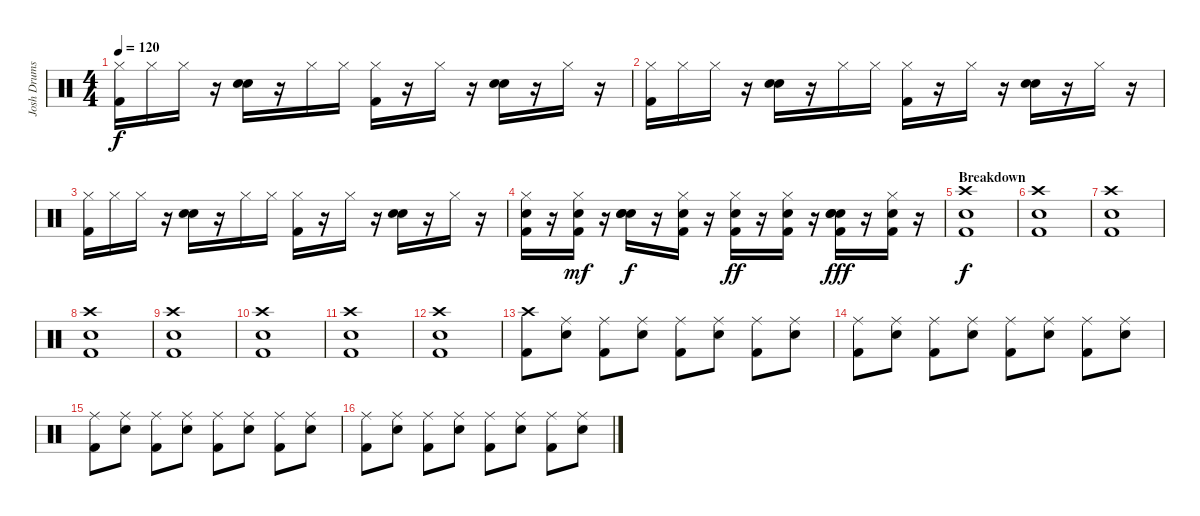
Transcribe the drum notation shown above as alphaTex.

\track ("Josh Drums" "Josh Drums") {instrument percussion}
\staff {score}
\articulation defaults
\ts (4 4)
\tempo 120
\clef neutral
\ks c
("Hi-Hat (closed)" "Kick (hit) 2").16{dy f} "Hi-Hat (closed)".16 "Hi-Hat (closed)".16 r.16 ("Hand Clap (hit)" "Hand Clap (hit)").16 r.16 "Hi-Hat (closed)".16 "Hi-Hat (closed)".16 ("Hi-Hat (closed)" "Kick (hit) 2").16 r.16 "Hi-Hat (closed)".16 r.16 ("Hand Clap (hit)" "Hand Clap (hit)").16 r.16 "Hi-Hat (closed)".16 r.16 |
("Hi-Hat (closed)" "Kick (hit) 2").16 "Hi-Hat (closed)".16 "Hi-Hat (closed)".16 r.16 ("Hand Clap (hit)" "Hand Clap (hit)").16 r.16 "Hi-Hat (closed)".16 "Hi-Hat (closed)".16 ("Hi-Hat (closed)" "Kick (hit) 2").16 r.16 "Hi-Hat (closed)".16 r.16 ("Hand Clap (hit)" "Hand Clap (hit)").16 r.16 "Hi-Hat (closed)".16 r.16 |
("Hi-Hat (closed)" "Kick (hit) 2").16 "Hi-Hat (closed)".16 "Hi-Hat (closed)".16 r.16 ("Hand Clap (hit)" "Hand Clap (hit)").16 r.16 "Hi-Hat (closed)".16 "Hi-Hat (closed)".16 ("Hi-Hat (closed)" "Kick (hit) 2").16 r.16 "Hi-Hat (closed)".16 r.16 ("Hand Clap (hit)" "Hand Clap (hit)").16 r.16 "Hi-Hat (closed)".16 r.16 |
("Hi-Hat (closed)" "Electric Snare (hit)" "Kick (hit) 2").16 r.16 ("Hi-Hat (closed)" "Electric Snare (hit)" "Kick (hit) 2").16{dy mf} r.16 ("Hand Clap (hit)" "Hand Clap (hit)" "Electric Snare (hit)").16{dy f} r.16 ("Hi-Hat (closed)" "Electric Snare (hit)" "Kick (hit) 2").16 r.16 ("Hi-Hat (closed)" "Electric Snare (hit)" "Kick (hit) 2").16{dy ff} r.16 ("Hi-Hat (closed)" "Electric Snare (hit)" "Kick (hit) 2").16 r.16 ("Kick (hit) 2" "Hand Clap (hit)" "Hand Clap (hit)" "Electric Snare (hit)").16{dy fff} r.16 ("Hi-Hat (closed)" "Electric Snare (hit)" "Kick (hit) 2").16 r.16 |
\section ("" "Breakdown")
("Crash high (hit)" "Electric Snare (hit)" "Kick (hit) 2").1{dy f} |
("Crash high (hit)" "Electric Snare (hit)" "Kick (hit) 2").1 |
("Crash high (hit)" "Electric Snare (hit)" "Kick (hit) 2").1 |
("Crash high (hit)" "Electric Snare (hit)" "Kick (hit) 2").1 |
("Crash high (hit)" "Electric Snare (hit)" "Kick (hit) 2").1 |
("Crash high (hit)" "Electric Snare (hit)" "Kick (hit) 2").1 |
("Crash high (hit)" "Electric Snare (hit)" "Kick (hit) 2").1 |
("Crash high (hit)" "Electric Snare (hit)" "Kick (hit) 2").1 |
("Crash high (hit)" "Kick (hit) 2").8 ("Ride (middle)" "Electric Snare (hit)").8 ("Ride (middle)" "Kick (hit) 2").8 ("Ride (middle)" "Electric Snare (hit)").8 ("Ride (middle)" "Kick (hit) 2").8 ("Ride (middle)" "Electric Snare (hit)").8 ("Ride (middle)" "Kick (hit) 2").8 ("Ride (middle)" "Electric Snare (hit)").8 |
("Ride (middle)" "Kick (hit) 2").8 ("Ride (middle)" "Electric Snare (hit)").8 ("Ride (middle)" "Kick (hit) 2").8 ("Ride (middle)" "Electric Snare (hit)").8 ("Ride (middle)" "Kick (hit) 2").8 ("Ride (middle)" "Electric Snare (hit)").8 ("Ride (middle)" "Kick (hit) 2").8 ("Ride (middle)" "Electric Snare (hit)").8 |
("Ride (middle)" "Kick (hit) 2").8 ("Ride (middle)" "Electric Snare (hit)").8 ("Ride (middle)" "Kick (hit) 2").8 ("Ride (middle)" "Electric Snare (hit)").8 ("Ride (middle)" "Kick (hit) 2").8 ("Ride (middle)" "Electric Snare (hit)").8 ("Ride (middle)" "Kick (hit) 2").8 ("Ride (middle)" "Electric Snare (hit)").8 |
("Ride (middle)" "Kick (hit) 2").8 ("Ride (middle)" "Electric Snare (hit)").8 ("Ride (middle)" "Kick (hit) 2").8 ("Ride (middle)" "Electric Snare (hit)").8 ("Ride (middle)" "Kick (hit) 2").8 ("Ride (middle)" "Electric Snare (hit)").8 ("Ride (middle)" "Kick (hit) 2").8 ("Ride (middle)" "Electric Snare (hit)").8
